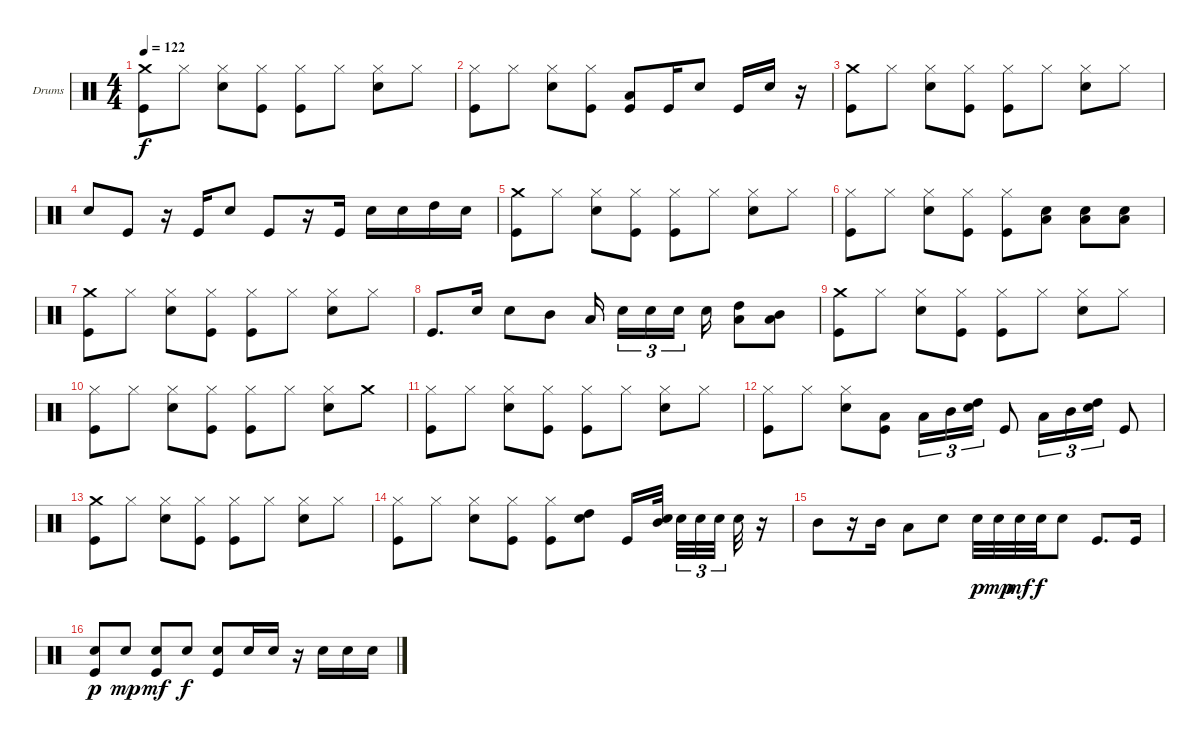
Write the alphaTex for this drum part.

\bracketExtendMode groupsimilarinstruments
\firstSystemTrackNameOrientation horizontal
\otherSystemsTrackNameOrientation horizontal
\track ("Drumkit" "Drums") {instrument percussion}
\staff {score}
\articulation defaults
\ts (4 4)
\tempo 122
\clef neutral
\ks c
("Crash medium (hit)" "Kick (hit)").8{dy f} "Hi-Hat (closed)".8 ("Hi-Hat (closed)" "Snare (hit) 2").8 ("Hi-Hat (closed)" "Kick (hit)").8 ("Hi-Hat (closed)" "Kick (hit)").8 "Hi-Hat (closed)".8 ("Hi-Hat (closed)" "Snare (hit) 2").8 "Hi-Hat (closed)".8 |
("Hi-Hat (closed)" "Kick (hit)").8 "Hi-Hat (closed)".8 ("Hi-Hat (closed)" "Snare (hit) 2").8 ("Hi-Hat (closed)" "Kick (hit)").8 ("Low Tom (hit)" "Kick (hit)").8 "Kick (hit)".16 "Snare (hit) 2".8 "Kick (hit)".16 "Snare (hit) 2".16 r.16 |
("Crash medium (hit)" "Kick (hit)").8 "Hi-Hat (closed)".8 ("Hi-Hat (closed)" "Snare (hit) 2").8 ("Hi-Hat (closed)" "Kick (hit)").8 ("Hi-Hat (closed)" "Kick (hit)").8 "Hi-Hat (closed)".8 ("Hi-Hat (closed)" "Snare (hit) 2").8 "Hi-Hat (closed)".8 |
"Snare (hit) 2".8 "Kick (hit)".8 r.16 "Kick (hit)".16 "Snare (hit) 2".8 "Kick (hit)".8 r.16 "Kick (hit)".16 "Snare (hit) 2".16 "Snare (hit) 2".16 "High Tom (hit)".16 "Snare (hit) 2".16 |
("Crash medium (hit)" "Kick (hit)").8 "Hi-Hat (closed)".8 ("Hi-Hat (closed)" "Snare (hit) 2").8 ("Hi-Hat (closed)" "Kick (hit)").8 ("Hi-Hat (closed)" "Kick (hit)").8 "Hi-Hat (closed)".8 ("Hi-Hat (closed)" "Snare (hit) 2").8 "Hi-Hat (closed)".8 |
("Hi-Hat (closed)" "Kick (hit)").8 "Hi-Hat (closed)".8 ("Hi-Hat (closed)" "Snare (hit) 2").8 ("Hi-Hat (closed)" "Kick (hit)").8 ("Hi-Hat (closed)" "Kick (hit)").8 ("Low Tom (hit)" "Snare (hit) 2").8 ("Low Tom (hit)" "Snare (hit) 2").8 ("Low Tom (hit)" "Snare (hit) 2").8 |
("Crash medium (hit)" "Kick (hit)").8 "Hi-Hat (closed)".8 ("Hi-Hat (closed)" "Snare (hit) 2").8 ("Hi-Hat (closed)" "Kick (hit)").8 ("Hi-Hat (closed)" "Kick (hit)").8 "Hi-Hat (closed)".8 ("Hi-Hat (closed)" "Snare (hit) 2").8 "Hi-Hat (closed)".8 |
"Kick (hit)".8{d} "Snare (hit) 2".16 "Snare (hit) 2".8 "Mid Tom (hit)".8 "Low Tom (hit)".16 "Snare (hit) 2".16{tu (3 2)} "Snare (hit) 2".16{tu (3 2)} "Snare (hit) 2".16{tu (3 2)} "Snare (hit) 2".16 ("High Tom (hit)" "Low Tom (hit)").8 ("Mid Tom (hit)" "Low Tom (hit)").8 |
("Crash medium (hit)" "Kick (hit)").8 "Hi-Hat (closed)".8 ("Hi-Hat (closed)" "Snare (hit) 2").8 ("Hi-Hat (closed)" "Kick (hit)").8 ("Hi-Hat (closed)" "Kick (hit)").8 "Hi-Hat (closed)".8 ("Hi-Hat (closed)" "Snare (hit) 2").8 "Hi-Hat (closed)".8 |
("Hi-Hat (closed)" "Kick (hit)").8 "Hi-Hat (closed)".8 ("Hi-Hat (closed)" "Snare (hit) 2").8 ("Hi-Hat (closed)" "Kick (hit)").8 ("Hi-Hat (closed)" "Kick (hit)").8 "Hi-Hat (closed)".8 ("Hi-Hat (closed)" "Snare (hit) 2").8 "Crash medium (hit)".8 |
("Hi-Hat (closed)" "Kick (hit)").8 "Hi-Hat (closed)".8 ("Hi-Hat (closed)" "Snare (hit) 2").8 ("Hi-Hat (closed)" "Kick (hit)").8 ("Hi-Hat (closed)" "Kick (hit)").8 "Hi-Hat (closed)".8 ("Hi-Hat (closed)" "Snare (hit) 2").8 "Hi-Hat (closed)".8 |
("Hi-Hat (closed)" "Kick (hit)").8 "Hi-Hat (closed)".8 ("Hi-Hat (closed)" "Snare (hit) 2").8 ("Low Tom (hit)" "Kick (hit)").8 "Low Tom (hit)".16{tu (3 2)} "Mid Tom (hit)".16{tu (3 2)} ("High Tom (hit)" "Snare (hit) 2").16{tu (3 2)} "Kick (hit)".8 "Low Tom (hit)".16{tu (3 2)} "Mid Tom (hit)".16{tu (3 2)} ("High Tom (hit)" "Snare (hit) 2").16{tu (3 2)} "Kick (hit)".8 |
("Crash medium (hit)" "Kick (hit)").8 "Hi-Hat (closed)".8 ("Hi-Hat (closed)" "Snare (hit) 2").8 ("Hi-Hat (closed)" "Kick (hit)").8 ("Hi-Hat (closed)" "Kick (hit)").8 "Hi-Hat (closed)".8 ("Hi-Hat (closed)" "Snare (hit) 2").8 "Hi-Hat (closed)".8 |
("Hi-Hat (closed)" "Kick (hit)").8 "Hi-Hat (closed)".8 ("Hi-Hat (closed)" "Snare (hit) 2").8 ("Hi-Hat (closed)" "Kick (hit)").8 ("Hi-Hat (closed)" "Kick (hit)").8 ("High Tom (hit)" "Snare (hit) 2").8 "Kick (hit)".16 ("Mid Tom (hit)" "Snare (hit) 2").32 "Snare (hit) 2".32{tu (3 2)} "Snare (hit) 2".32{tu (3 2)} "Snare (hit) 2".32{tu (3 2)} "Snare (hit) 2".32 r.16 |
"Mid Tom (hit)".8 r.16 "Mid Tom (hit)".16 "Low Tom (hit)".8 "Snare (hit) 2".8 "Snare (hit) 2".32{dy p} "Snare (hit) 2".32{dy mp} "Snare (hit) 2".32{dy mf} "Snare (hit) 2".32{dy f} "Snare (hit) 2".8 "Kick (hit)".8{d} "Kick (hit)".16 |
("Snare (hit) 2" "Kick (hit)").8{dy p} "Snare (hit) 2".8{dy mp} ("Snare (hit) 2" "Kick (hit)").8{dy mf} "Snare (hit) 2".8{dy f} ("Snare (hit) 2" "Kick (hit)").8 "Snare (hit) 2".16 "Snare (hit) 2".16 r.16 "Snare (hit) 2".16 "Snare (hit) 2".16 "Snare (hit) 2".16
